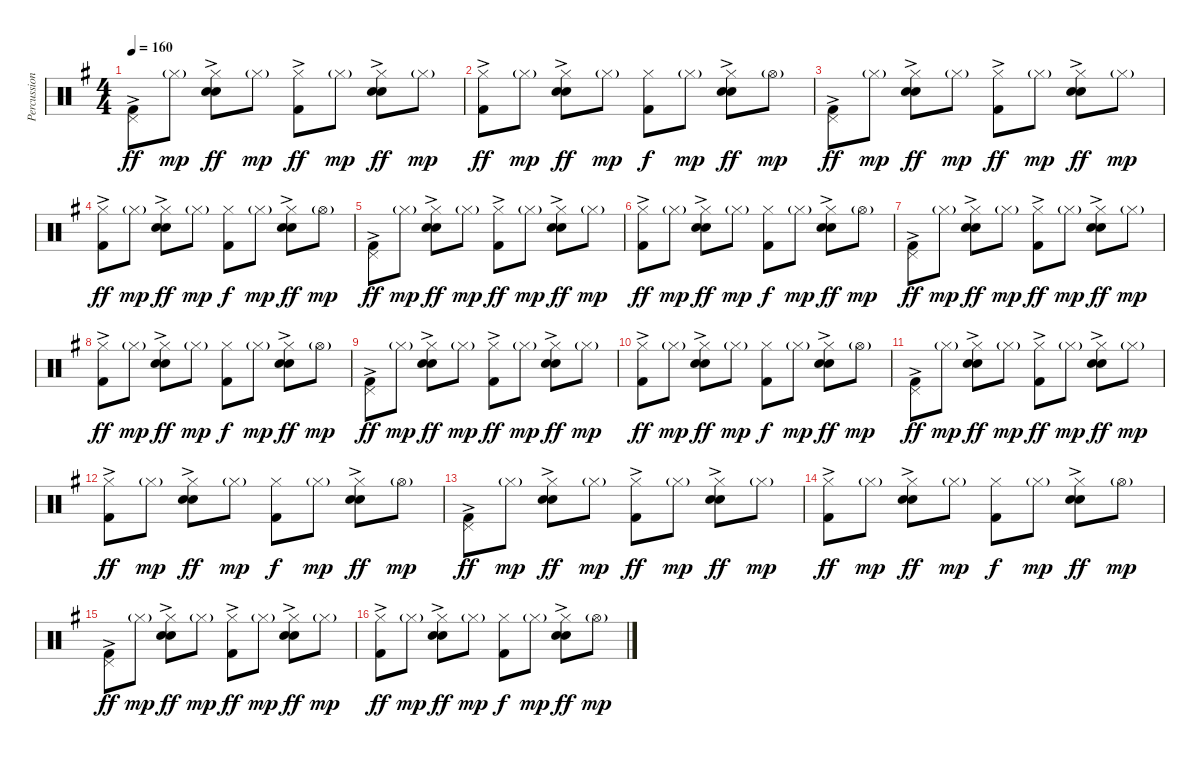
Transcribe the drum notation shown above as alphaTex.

\track ("Percussion" "Percussion") {instrument percussion}
\staff {score}
\articulation defaults
\ts (4 4)
\tempo 160
\clef neutral
\ks g
("Pedal Hi-Hat (hit)" "Kick (hit) 2"{ac}).8{dy ff} "Hi-Hat (closed)"{g}.8{dy mp} ("Hi-Hat (closed)" "Electric Snare (hit)"{ac} "Snare (hit) 2").8{dy ff} "Hi-Hat (closed)"{g}.8{dy mp} ("Hi-Hat (closed)" "Kick (hit) 2"{ac}).8{dy ff} "Hi-Hat (closed)"{g}.8{dy mp} ("Hi-Hat (closed)" "Electric Snare (hit)"{ac} "Snare (hit) 2").8{dy ff} "Hi-Hat (closed)"{g}.8{dy mp} |
("Hi-Hat (closed)" "Kick (hit) 2"{ac}).8{dy ff} "Hi-Hat (closed)"{g}.8{dy mp} ("Hi-Hat (closed)" "Electric Snare (hit)"{ac} "Snare (hit) 2").8{dy ff} "Hi-Hat (closed)"{g}.8{dy mp} ("Hi-Hat (closed)" "Kick (hit) 2").8{dy f} "Hi-Hat (closed)"{g}.8{dy mp} ("Hi-Hat (closed)" "Electric Snare (hit)"{ac} "Snare (hit) 2").8{dy ff} "Hi-Hat (open)"{g}.8{dy mp} |
("Pedal Hi-Hat (hit)" "Kick (hit) 2"{ac}).8{dy ff} "Hi-Hat (closed)"{g}.8{dy mp} ("Hi-Hat (closed)" "Electric Snare (hit)"{ac} "Snare (hit) 2").8{dy ff} "Hi-Hat (closed)"{g}.8{dy mp} ("Hi-Hat (closed)" "Kick (hit) 2"{ac}).8{dy ff} "Hi-Hat (closed)"{g}.8{dy mp} ("Hi-Hat (closed)" "Electric Snare (hit)"{ac} "Snare (hit) 2").8{dy ff} "Hi-Hat (closed)"{g}.8{dy mp} |
("Hi-Hat (closed)" "Kick (hit) 2"{ac}).8{dy ff} "Hi-Hat (closed)"{g}.8{dy mp} ("Hi-Hat (closed)" "Electric Snare (hit)"{ac} "Snare (hit) 2").8{dy ff} "Hi-Hat (closed)"{g}.8{dy mp} ("Hi-Hat (closed)" "Kick (hit) 2").8{dy f} "Hi-Hat (closed)"{g}.8{dy mp} ("Hi-Hat (closed)" "Electric Snare (hit)"{ac} "Snare (hit) 2").8{dy ff} "Hi-Hat (open)"{g}.8{dy mp} |
("Pedal Hi-Hat (hit)" "Kick (hit) 2"{ac}).8{dy ff} "Hi-Hat (closed)"{g}.8{dy mp} ("Hi-Hat (closed)" "Electric Snare (hit)"{ac} "Snare (hit) 2").8{dy ff} "Hi-Hat (closed)"{g}.8{dy mp} ("Hi-Hat (closed)" "Kick (hit) 2"{ac}).8{dy ff} "Hi-Hat (closed)"{g}.8{dy mp} ("Hi-Hat (closed)" "Electric Snare (hit)"{ac} "Snare (hit) 2").8{dy ff} "Hi-Hat (closed)"{g}.8{dy mp} |
("Hi-Hat (closed)" "Kick (hit) 2"{ac}).8{dy ff} "Hi-Hat (closed)"{g}.8{dy mp} ("Hi-Hat (closed)" "Electric Snare (hit)"{ac} "Snare (hit) 2").8{dy ff} "Hi-Hat (closed)"{g}.8{dy mp} ("Hi-Hat (closed)" "Kick (hit) 2").8{dy f} "Hi-Hat (closed)"{g}.8{dy mp} ("Hi-Hat (closed)" "Electric Snare (hit)"{ac} "Snare (hit) 2").8{dy ff} "Hi-Hat (open)"{g}.8{dy mp} |
("Pedal Hi-Hat (hit)" "Kick (hit) 2"{ac}).8{dy ff} "Hi-Hat (closed)"{g}.8{dy mp} ("Hi-Hat (closed)" "Electric Snare (hit)"{ac} "Snare (hit) 2").8{dy ff} "Hi-Hat (closed)"{g}.8{dy mp} ("Hi-Hat (closed)" "Kick (hit) 2"{ac}).8{dy ff} "Hi-Hat (closed)"{g}.8{dy mp} ("Hi-Hat (closed)" "Electric Snare (hit)"{ac} "Snare (hit) 2").8{dy ff} "Hi-Hat (closed)"{g}.8{dy mp} |
("Hi-Hat (closed)" "Kick (hit) 2"{ac}).8{dy ff} "Hi-Hat (closed)"{g}.8{dy mp} ("Hi-Hat (closed)" "Electric Snare (hit)"{ac} "Snare (hit) 2").8{dy ff} "Hi-Hat (closed)"{g}.8{dy mp} ("Hi-Hat (closed)" "Kick (hit) 2").8{dy f} "Hi-Hat (closed)"{g}.8{dy mp} ("Hi-Hat (closed)" "Electric Snare (hit)"{ac} "Snare (hit) 2").8{dy ff} "Hi-Hat (open)"{g}.8{dy mp} |
("Pedal Hi-Hat (hit)" "Kick (hit) 2"{ac}).8{dy ff} "Hi-Hat (closed)"{g}.8{dy mp} ("Hi-Hat (closed)" "Electric Snare (hit)"{ac} "Snare (hit) 2").8{dy ff} "Hi-Hat (closed)"{g}.8{dy mp} ("Hi-Hat (closed)" "Kick (hit) 2"{ac}).8{dy ff} "Hi-Hat (closed)"{g}.8{dy mp} ("Hi-Hat (closed)" "Electric Snare (hit)"{ac} "Snare (hit) 2").8{dy ff} "Hi-Hat (closed)"{g}.8{dy mp} |
("Hi-Hat (closed)" "Kick (hit) 2"{ac}).8{dy ff} "Hi-Hat (closed)"{g}.8{dy mp} ("Hi-Hat (closed)" "Electric Snare (hit)"{ac} "Snare (hit) 2").8{dy ff} "Hi-Hat (closed)"{g}.8{dy mp} ("Hi-Hat (closed)" "Kick (hit) 2").8{dy f} "Hi-Hat (closed)"{g}.8{dy mp} ("Hi-Hat (closed)" "Electric Snare (hit)"{ac} "Snare (hit) 2").8{dy ff} "Hi-Hat (open)"{g}.8{dy mp} |
("Pedal Hi-Hat (hit)" "Kick (hit) 2"{ac}).8{dy ff} "Hi-Hat (closed)"{g}.8{dy mp} ("Hi-Hat (closed)" "Electric Snare (hit)"{ac} "Snare (hit) 2").8{dy ff} "Hi-Hat (closed)"{g}.8{dy mp} ("Hi-Hat (closed)" "Kick (hit) 2"{ac}).8{dy ff} "Hi-Hat (closed)"{g}.8{dy mp} ("Hi-Hat (closed)" "Electric Snare (hit)"{ac} "Snare (hit) 2").8{dy ff} "Hi-Hat (closed)"{g}.8{dy mp} |
("Hi-Hat (closed)" "Kick (hit) 2"{ac}).8{dy ff} "Hi-Hat (closed)"{g}.8{dy mp} ("Hi-Hat (closed)" "Electric Snare (hit)"{ac} "Snare (hit) 2").8{dy ff} "Hi-Hat (closed)"{g}.8{dy mp} ("Hi-Hat (closed)" "Kick (hit) 2").8{dy f} "Hi-Hat (closed)"{g}.8{dy mp} ("Hi-Hat (closed)" "Electric Snare (hit)"{ac} "Snare (hit) 2").8{dy ff} "Hi-Hat (open)"{g}.8{dy mp} |
("Pedal Hi-Hat (hit)" "Kick (hit) 2"{ac}).8{dy ff} "Hi-Hat (closed)"{g}.8{dy mp} ("Hi-Hat (closed)" "Electric Snare (hit)"{ac} "Snare (hit) 2").8{dy ff} "Hi-Hat (closed)"{g}.8{dy mp} ("Hi-Hat (closed)" "Kick (hit) 2"{ac}).8{dy ff} "Hi-Hat (closed)"{g}.8{dy mp} ("Hi-Hat (closed)" "Electric Snare (hit)"{ac} "Snare (hit) 2").8{dy ff} "Hi-Hat (closed)"{g}.8{dy mp} |
("Hi-Hat (closed)" "Kick (hit) 2"{ac}).8{dy ff} "Hi-Hat (closed)"{g}.8{dy mp} ("Hi-Hat (closed)" "Electric Snare (hit)"{ac} "Snare (hit) 2").8{dy ff} "Hi-Hat (closed)"{g}.8{dy mp} ("Hi-Hat (closed)" "Kick (hit) 2").8{dy f} "Hi-Hat (closed)"{g}.8{dy mp} ("Hi-Hat (closed)" "Electric Snare (hit)"{ac} "Snare (hit) 2").8{dy ff} "Hi-Hat (open)"{g}.8{dy mp} |
("Pedal Hi-Hat (hit)" "Kick (hit) 2"{ac}).8{dy ff} "Hi-Hat (closed)"{g}.8{dy mp} ("Hi-Hat (closed)" "Electric Snare (hit)"{ac} "Snare (hit) 2").8{dy ff} "Hi-Hat (closed)"{g}.8{dy mp} ("Hi-Hat (closed)" "Kick (hit) 2"{ac}).8{dy ff} "Hi-Hat (closed)"{g}.8{dy mp} ("Hi-Hat (closed)" "Electric Snare (hit)"{ac} "Snare (hit) 2").8{dy ff} "Hi-Hat (closed)"{g}.8{dy mp} |
("Hi-Hat (closed)" "Kick (hit) 2"{ac}).8{dy ff} "Hi-Hat (closed)"{g}.8{dy mp} ("Hi-Hat (closed)" "Electric Snare (hit)"{ac} "Snare (hit) 2").8{dy ff} "Hi-Hat (closed)"{g}.8{dy mp} ("Hi-Hat (closed)" "Kick (hit) 2").8{dy f} "Hi-Hat (closed)"{g}.8{dy mp} ("Hi-Hat (closed)" "Electric Snare (hit)"{ac} "Snare (hit) 2").8{dy ff} "Hi-Hat (open)"{g}.8{dy mp}
